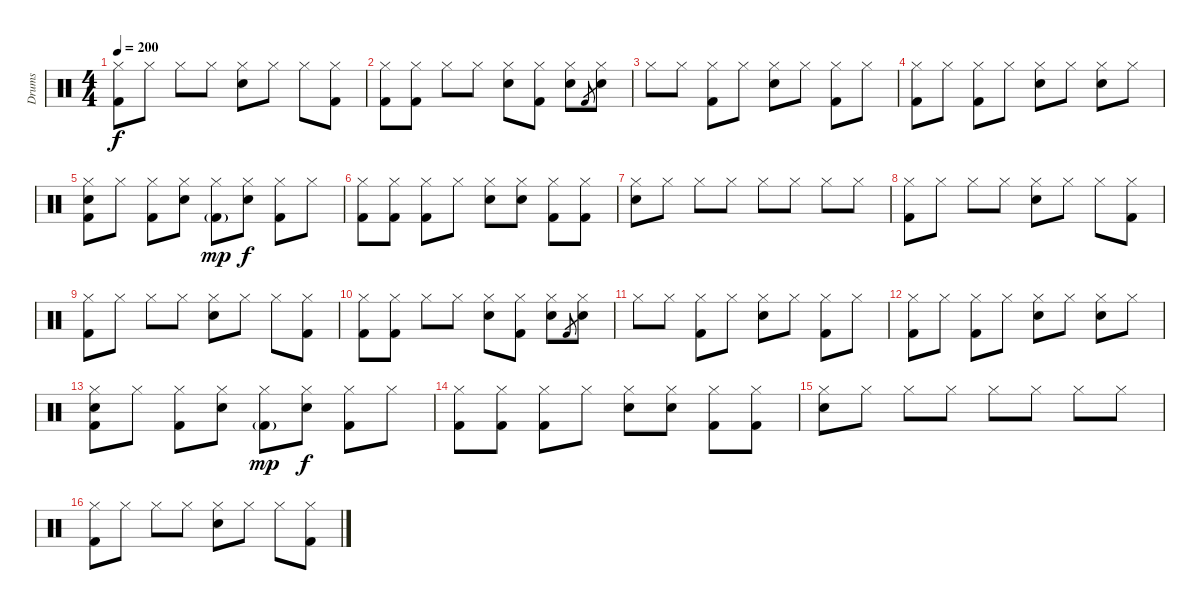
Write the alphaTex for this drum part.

\track ("Drums" "Drums") {instrument percussion}
\staff {score}
\articulation defaults
\ts (4 4)
\tempo 200
\clef neutral
\ks c
("Hi-Hat (closed)" "Kick (hit) 2").8{dy f} "Hi-Hat (closed)".8 "Hi-Hat (closed)".8 "Hi-Hat (closed)".8 ("Hi-Hat (closed)" "Snare (hit) 2").8 "Hi-Hat (closed)".8 "Hi-Hat (closed)".8 ("Hi-Hat (closed)" "Kick (hit) 2").8 |
("Hi-Hat (closed)" "Kick (hit) 2").8 ("Hi-Hat (closed)" "Kick (hit) 2").8 "Hi-Hat (closed)".8 "Hi-Hat (closed)".8 ("Hi-Hat (closed)" "Snare (hit) 2").8 ("Hi-Hat (closed)" "Kick (hit) 2").8 ("Hi-Hat (closed)" "Snare (hit) 2").8 "Kick (hit) 2".8{gr} ("Hi-Hat (closed)" "Snare (hit) 2").8 |
"Hi-Hat (closed)".8 "Hi-Hat (closed)".8 ("Hi-Hat (closed)" "Kick (hit) 2").8 "Hi-Hat (closed)".8 ("Hi-Hat (closed)" "Snare (hit) 2").8 "Hi-Hat (closed)".8 ("Hi-Hat (closed)" "Kick (hit) 2").8 "Hi-Hat (closed)".8 |
("Hi-Hat (closed)" "Kick (hit) 2").8 "Hi-Hat (closed)".8 ("Hi-Hat (closed)" "Kick (hit) 2").8 "Hi-Hat (closed)".8 ("Hi-Hat (closed)" "Snare (hit) 2").8 "Hi-Hat (closed)".8 ("Hi-Hat (closed)" "Snare (hit) 2").8 "Hi-Hat (closed)".8 |
("Hi-Hat (closed)" "Kick (hit) 2" "Snare (hit) 2").8 "Hi-Hat (closed)".8 ("Hi-Hat (closed)" "Kick (hit) 2").8 ("Hi-Hat (closed)" "Snare (hit) 2").8 ("Hi-Hat (closed)" "Kick (hit) 2"{g}).8{dy mp} ("Hi-Hat (closed)" "Snare (hit) 2").8{dy f} ("Hi-Hat (closed)" "Kick (hit) 2").8 "Hi-Hat (closed)".8 |
("Hi-Hat (closed)" "Kick (hit) 2").8 ("Hi-Hat (closed)" "Kick (hit) 2").8 ("Hi-Hat (closed)" "Kick (hit) 2").8 "Hi-Hat (closed)".8 ("Hi-Hat (closed)" "Snare (hit) 2").8 ("Hi-Hat (closed)" "Snare (hit) 2").8 ("Hi-Hat (closed)" "Kick (hit) 2").8 ("Hi-Hat (closed)" "Kick (hit) 2").8 |
("Hi-Hat (closed)" "Snare (hit) 2").8 "Hi-Hat (closed)".8 "Hi-Hat (closed)".8 "Hi-Hat (closed)".8 "Hi-Hat (closed)".8 "Hi-Hat (closed)".8 "Hi-Hat (closed)".8 "Hi-Hat (closed)".8 |
("Hi-Hat (closed)" "Kick (hit) 2").8 "Hi-Hat (closed)".8 "Hi-Hat (closed)".8 "Hi-Hat (closed)".8 ("Hi-Hat (closed)" "Snare (hit) 2").8 "Hi-Hat (closed)".8 "Hi-Hat (closed)".8 ("Hi-Hat (closed)" "Kick (hit) 2").8 |
("Hi-Hat (closed)" "Kick (hit) 2").8 "Hi-Hat (closed)".8 "Hi-Hat (closed)".8 "Hi-Hat (closed)".8 ("Hi-Hat (closed)" "Snare (hit) 2").8 "Hi-Hat (closed)".8 "Hi-Hat (closed)".8 ("Hi-Hat (closed)" "Kick (hit) 2").8 |
("Hi-Hat (closed)" "Kick (hit) 2").8 ("Hi-Hat (closed)" "Kick (hit) 2").8 "Hi-Hat (closed)".8 "Hi-Hat (closed)".8 ("Hi-Hat (closed)" "Snare (hit) 2").8 ("Hi-Hat (closed)" "Kick (hit) 2").8 ("Hi-Hat (closed)" "Snare (hit) 2").8 "Kick (hit) 2".8{gr} ("Hi-Hat (closed)" "Snare (hit) 2").8 |
"Hi-Hat (closed)".8 "Hi-Hat (closed)".8 ("Hi-Hat (closed)" "Kick (hit) 2").8 "Hi-Hat (closed)".8 ("Hi-Hat (closed)" "Snare (hit) 2").8 "Hi-Hat (closed)".8 ("Hi-Hat (closed)" "Kick (hit) 2").8 "Hi-Hat (closed)".8 |
("Hi-Hat (closed)" "Kick (hit) 2").8 "Hi-Hat (closed)".8 ("Hi-Hat (closed)" "Kick (hit) 2").8 "Hi-Hat (closed)".8 ("Hi-Hat (closed)" "Snare (hit) 2").8 "Hi-Hat (closed)".8 ("Hi-Hat (closed)" "Snare (hit) 2").8 "Hi-Hat (closed)".8 |
("Hi-Hat (closed)" "Kick (hit) 2" "Snare (hit) 2").8 "Hi-Hat (closed)".8 ("Hi-Hat (closed)" "Kick (hit) 2").8 ("Hi-Hat (closed)" "Snare (hit) 2").8 ("Hi-Hat (closed)" "Kick (hit) 2"{g}).8{dy mp} ("Hi-Hat (closed)" "Snare (hit) 2").8{dy f} ("Hi-Hat (closed)" "Kick (hit) 2").8 "Hi-Hat (closed)".8 |
("Hi-Hat (closed)" "Kick (hit) 2").8 ("Hi-Hat (closed)" "Kick (hit) 2").8 ("Hi-Hat (closed)" "Kick (hit) 2").8 "Hi-Hat (closed)".8 ("Hi-Hat (closed)" "Snare (hit) 2").8 ("Hi-Hat (closed)" "Snare (hit) 2").8 ("Hi-Hat (closed)" "Kick (hit) 2").8 ("Hi-Hat (closed)" "Kick (hit) 2").8 |
("Hi-Hat (closed)" "Snare (hit) 2").8 "Hi-Hat (closed)".8 "Hi-Hat (closed)".8 "Hi-Hat (closed)".8 "Hi-Hat (closed)".8 "Hi-Hat (closed)".8 "Hi-Hat (closed)".8 "Hi-Hat (closed)".8 |
("Hi-Hat (closed)" "Kick (hit) 2").8 "Hi-Hat (closed)".8 "Hi-Hat (closed)".8 "Hi-Hat (closed)".8 ("Hi-Hat (closed)" "Snare (hit) 2").8 "Hi-Hat (closed)".8 "Hi-Hat (closed)".8 ("Hi-Hat (closed)" "Kick (hit) 2").8
